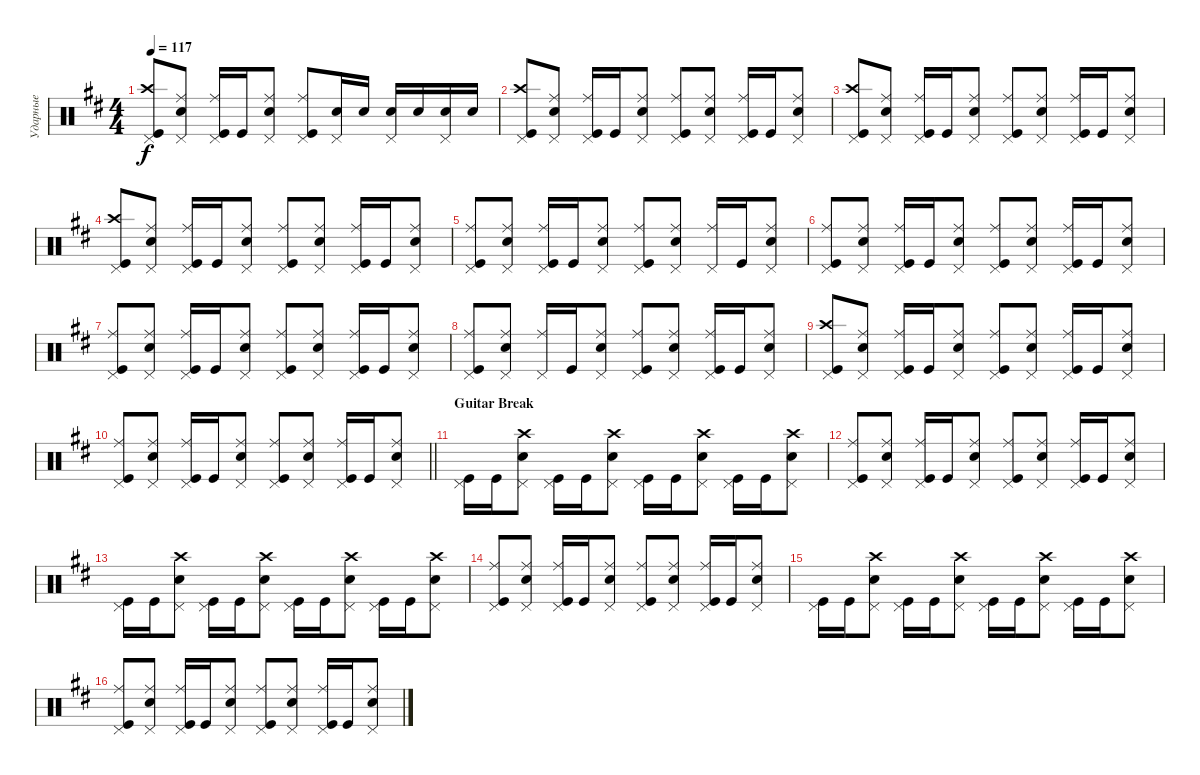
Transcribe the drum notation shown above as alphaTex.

\track ("Ударные" "Ударные") {instrument percussion}
\staff {score}
\articulation defaults
\ts (4 4)
\tempo 117
\clef neutral
\ks bminor
("Kick (hit)" "Crash high (hit)" "Pedal Hi-Hat (hit)").8{dy f} ("Snare (hit) 2" "Ride (middle)" "Pedal Hi-Hat (hit)").8 ("Kick (hit)" "Ride (middle)" "Pedal Hi-Hat (hit)").16 "Kick (hit)".16 ("Snare (hit) 2" "Ride (middle)" "Pedal Hi-Hat (hit)").8 ("Kick (hit)" "Ride (middle)" "Pedal Hi-Hat (hit)").8 ("Snare (hit) 2" "Pedal Hi-Hat (hit)").16 "Snare (hit) 2".16 ("Snare (hit) 2" "Pedal Hi-Hat (hit)").16 "Snare (hit) 2".16 ("Snare (hit) 2" "Pedal Hi-Hat (hit)").16 "Snare (hit) 2".16 |
("Kick (hit)" "Crash high (hit)" "Pedal Hi-Hat (hit)").8 ("Snare (hit) 2" "Ride (middle)" "Pedal Hi-Hat (hit)").8 ("Kick (hit)" "Ride (middle)" "Pedal Hi-Hat (hit)").16 "Kick (hit)".16 ("Snare (hit) 2" "Ride (middle)" "Pedal Hi-Hat (hit)").8 ("Kick (hit)" "Ride (middle)" "Pedal Hi-Hat (hit)").8 ("Snare (hit) 2" "Ride (middle)" "Pedal Hi-Hat (hit)").8 ("Kick (hit)" "Ride (middle)" "Pedal Hi-Hat (hit)").16 "Kick (hit)".16 ("Snare (hit) 2" "Ride (middle)" "Pedal Hi-Hat (hit)").8 |
("Kick (hit)" "Crash high (hit)" "Pedal Hi-Hat (hit)").8 ("Snare (hit) 2" "Ride (middle)" "Pedal Hi-Hat (hit)").8 ("Kick (hit)" "Ride (middle)" "Pedal Hi-Hat (hit)").16 "Kick (hit)".16 ("Snare (hit) 2" "Ride (middle)" "Pedal Hi-Hat (hit)").8 ("Kick (hit)" "Ride (middle)" "Pedal Hi-Hat (hit)").8 ("Snare (hit) 2" "Ride (middle)" "Pedal Hi-Hat (hit)").8 ("Kick (hit)" "Ride (middle)" "Pedal Hi-Hat (hit)").16 "Kick (hit)".16 ("Snare (hit) 2" "Ride (middle)" "Pedal Hi-Hat (hit)").8 |
("Kick (hit)" "Crash high (hit)" "Pedal Hi-Hat (hit)").8 ("Snare (hit) 2" "Ride (middle)" "Pedal Hi-Hat (hit)").8 ("Kick (hit)" "Ride (middle)" "Pedal Hi-Hat (hit)").16 "Kick (hit)".16 ("Snare (hit) 2" "Ride (middle)" "Pedal Hi-Hat (hit)").8 ("Kick (hit)" "Ride (middle)" "Pedal Hi-Hat (hit)").8 ("Snare (hit) 2" "Ride (middle)" "Pedal Hi-Hat (hit)").8 ("Kick (hit)" "Ride (middle)" "Pedal Hi-Hat (hit)").16 "Kick (hit)".16 ("Snare (hit) 2" "Ride (middle)" "Pedal Hi-Hat (hit)").8 |
("Kick (hit)" "Ride (middle)" "Pedal Hi-Hat (hit)").8 ("Snare (hit) 2" "Ride (middle)" "Pedal Hi-Hat (hit)").8 ("Kick (hit)" "Ride (middle)" "Pedal Hi-Hat (hit)").16 "Kick (hit)".16 ("Snare (hit) 2" "Ride (middle)" "Pedal Hi-Hat (hit)").8 ("Kick (hit)" "Ride (middle)" "Pedal Hi-Hat (hit)").8 ("Snare (hit) 2" "Ride (middle)" "Pedal Hi-Hat (hit)").8 ("Ride (middle)" "Pedal Hi-Hat (hit)").16 "Kick (hit)".16 ("Snare (hit) 2" "Ride (middle)" "Pedal Hi-Hat (hit)").8 |
("Kick (hit)" "Ride (middle)" "Pedal Hi-Hat (hit)").8 ("Snare (hit) 2" "Ride (middle)" "Pedal Hi-Hat (hit)").8 ("Kick (hit)" "Ride (middle)" "Pedal Hi-Hat (hit)").16 "Kick (hit)".16 ("Snare (hit) 2" "Ride (middle)" "Pedal Hi-Hat (hit)").8 ("Kick (hit)" "Ride (middle)" "Pedal Hi-Hat (hit)").8 ("Snare (hit) 2" "Ride (middle)" "Pedal Hi-Hat (hit)").8 ("Kick (hit)" "Ride (middle)" "Pedal Hi-Hat (hit)").16 "Kick (hit)".16 ("Snare (hit) 2" "Ride (middle)" "Pedal Hi-Hat (hit)").8 |
("Kick (hit)" "Ride (middle)" "Pedal Hi-Hat (hit)").8 ("Snare (hit) 2" "Ride (middle)" "Pedal Hi-Hat (hit)").8 ("Kick (hit)" "Ride (middle)" "Pedal Hi-Hat (hit)").16 "Kick (hit)".16 ("Snare (hit) 2" "Ride (middle)" "Pedal Hi-Hat (hit)").8 ("Kick (hit)" "Ride (middle)" "Pedal Hi-Hat (hit)").8 ("Snare (hit) 2" "Ride (middle)" "Pedal Hi-Hat (hit)").8 ("Kick (hit)" "Ride (middle)" "Pedal Hi-Hat (hit)").16 "Kick (hit)".16 ("Snare (hit) 2" "Ride (middle)" "Pedal Hi-Hat (hit)").8 |
("Kick (hit)" "Ride (middle)" "Pedal Hi-Hat (hit)").8 ("Snare (hit) 2" "Ride (middle)" "Pedal Hi-Hat (hit)").8 ("Ride (middle)" "Pedal Hi-Hat (hit)").16 "Kick (hit)".16 ("Snare (hit) 2" "Ride (middle)" "Pedal Hi-Hat (hit)").8 ("Kick (hit)" "Ride (middle)" "Pedal Hi-Hat (hit)").8 ("Snare (hit) 2" "Ride (middle)" "Pedal Hi-Hat (hit)").8 ("Kick (hit)" "Ride (middle)" "Pedal Hi-Hat (hit)").16 "Kick (hit)".16 ("Snare (hit) 2" "Ride (middle)" "Pedal Hi-Hat (hit)").8 |
("Kick (hit)" "Crash high (hit)" "Pedal Hi-Hat (hit)").8 ("Snare (hit) 2" "Ride (middle)" "Pedal Hi-Hat (hit)").8 ("Kick (hit)" "Ride (middle)" "Pedal Hi-Hat (hit)").16 "Kick (hit)".16 ("Snare (hit) 2" "Ride (middle)" "Pedal Hi-Hat (hit)").8 ("Kick (hit)" "Ride (middle)" "Pedal Hi-Hat (hit)").8 ("Snare (hit) 2" "Ride (middle)" "Pedal Hi-Hat (hit)").8 ("Kick (hit)" "Ride (middle)" "Pedal Hi-Hat (hit)").16 "Kick (hit)".16 ("Snare (hit) 2" "Ride (middle)" "Pedal Hi-Hat (hit)").8 |
\barLineRight lightlight
("Kick (hit)" "Ride (middle)" "Pedal Hi-Hat (hit)").8 ("Snare (hit) 2" "Ride (middle)" "Pedal Hi-Hat (hit)").8 ("Kick (hit)" "Ride (middle)" "Pedal Hi-Hat (hit)").16 "Kick (hit)".16 ("Snare (hit) 2" "Ride (middle)" "Pedal Hi-Hat (hit)").8 ("Kick (hit)" "Ride (middle)" "Pedal Hi-Hat (hit)").8 ("Snare (hit) 2" "Ride (middle)" "Pedal Hi-Hat (hit)").8 ("Kick (hit)" "Ride (middle)" "Pedal Hi-Hat (hit)").16 "Kick (hit)".16 ("Snare (hit) 2" "Ride (middle)" "Pedal Hi-Hat (hit)").8 |
\section ("" "Guitar Break")
("Kick (hit)" "Pedal Hi-Hat (hit)").16 "Kick (hit)".16 ("Snare (hit) 2" "Crash high (hit)" "Pedal Hi-Hat (hit)").8 ("Kick (hit)" "Pedal Hi-Hat (hit)").16 "Kick (hit)".16 ("Snare (hit) 2" "Crash high (hit)" "Pedal Hi-Hat (hit)").8 ("Kick (hit)" "Pedal Hi-Hat (hit)").16 "Kick (hit)".16 ("Snare (hit) 2" "Crash high (hit)" "Pedal Hi-Hat (hit)").8 ("Kick (hit)" "Pedal Hi-Hat (hit)").16 "Kick (hit)".16 ("Snare (hit) 2" "Crash high (hit)" "Pedal Hi-Hat (hit)").8 |
("Kick (hit)" "Ride (middle)" "Pedal Hi-Hat (hit)").8 ("Snare (hit) 2" "Ride (middle)" "Pedal Hi-Hat (hit)").8 ("Kick (hit)" "Ride (middle)" "Pedal Hi-Hat (hit)").16 "Kick (hit)".16 ("Snare (hit) 2" "Ride (middle)" "Pedal Hi-Hat (hit)").8 ("Kick (hit)" "Ride (middle)" "Pedal Hi-Hat (hit)").8 ("Snare (hit) 2" "Ride (middle)" "Pedal Hi-Hat (hit)").8 ("Kick (hit)" "Ride (middle)" "Pedal Hi-Hat (hit)").16 "Kick (hit)".16 ("Snare (hit) 2" "Ride (middle)" "Pedal Hi-Hat (hit)").8 |
("Kick (hit)" "Pedal Hi-Hat (hit)").16 "Kick (hit)".16 ("Snare (hit) 2" "Crash high (hit)" "Pedal Hi-Hat (hit)").8 ("Kick (hit)" "Pedal Hi-Hat (hit)").16 "Kick (hit)".16 ("Snare (hit) 2" "Crash high (hit)" "Pedal Hi-Hat (hit)").8 ("Kick (hit)" "Pedal Hi-Hat (hit)").16 "Kick (hit)".16 ("Snare (hit) 2" "Crash high (hit)" "Pedal Hi-Hat (hit)").8 ("Kick (hit)" "Pedal Hi-Hat (hit)").16 "Kick (hit)".16 ("Snare (hit) 2" "Crash high (hit)" "Pedal Hi-Hat (hit)").8 |
("Kick (hit)" "Ride (middle)" "Pedal Hi-Hat (hit)").8 ("Snare (hit) 2" "Ride (middle)" "Pedal Hi-Hat (hit)").8 ("Kick (hit)" "Ride (middle)" "Pedal Hi-Hat (hit)").16 "Kick (hit)".16 ("Snare (hit) 2" "Ride (middle)" "Pedal Hi-Hat (hit)").8 ("Kick (hit)" "Ride (middle)" "Pedal Hi-Hat (hit)").8 ("Snare (hit) 2" "Ride (middle)" "Pedal Hi-Hat (hit)").8 ("Kick (hit)" "Ride (middle)" "Pedal Hi-Hat (hit)").16 "Kick (hit)".16 ("Snare (hit) 2" "Ride (middle)" "Pedal Hi-Hat (hit)").8 |
("Kick (hit)" "Pedal Hi-Hat (hit)").16 "Kick (hit)".16 ("Snare (hit) 2" "Crash high (hit)" "Pedal Hi-Hat (hit)").8 ("Kick (hit)" "Pedal Hi-Hat (hit)").16 "Kick (hit)".16 ("Snare (hit) 2" "Crash high (hit)" "Pedal Hi-Hat (hit)").8 ("Kick (hit)" "Pedal Hi-Hat (hit)").16 "Kick (hit)".16 ("Snare (hit) 2" "Crash high (hit)" "Pedal Hi-Hat (hit)").8 ("Kick (hit)" "Pedal Hi-Hat (hit)").16 "Kick (hit)".16 ("Snare (hit) 2" "Crash high (hit)" "Pedal Hi-Hat (hit)").8 |
("Kick (hit)" "Ride (middle)" "Pedal Hi-Hat (hit)").8 ("Snare (hit) 2" "Ride (middle)" "Pedal Hi-Hat (hit)").8 ("Kick (hit)" "Ride (middle)" "Pedal Hi-Hat (hit)").16 "Kick (hit)".16 ("Snare (hit) 2" "Ride (middle)" "Pedal Hi-Hat (hit)").8 ("Kick (hit)" "Ride (middle)" "Pedal Hi-Hat (hit)").8 ("Snare (hit) 2" "Ride (middle)" "Pedal Hi-Hat (hit)").8 ("Kick (hit)" "Ride (middle)" "Pedal Hi-Hat (hit)").16 "Kick (hit)".16 ("Snare (hit) 2" "Ride (middle)" "Pedal Hi-Hat (hit)").8
